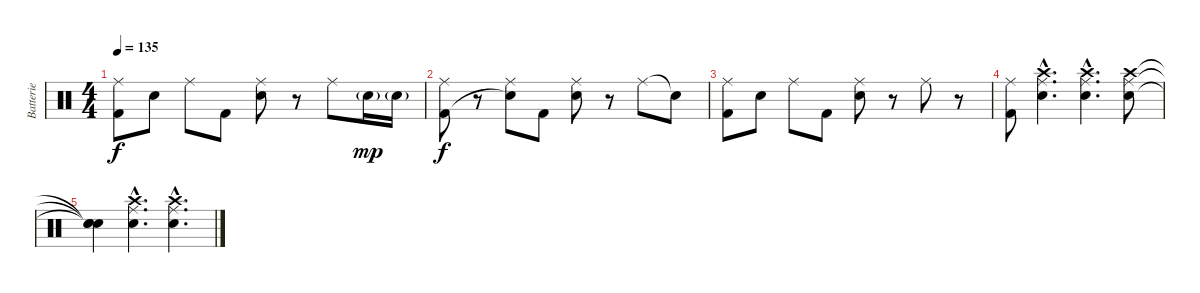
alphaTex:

\track ("Batterie" "Batterie") {instrument percussion}
\staff {score}
\articulation defaults
\ts (4 4)
\tempo 135
\clef neutral
\ks c
("Kick (hit) 2" "Ride (middle)").8{dy f} "Snare (hit) 2".8 "Ride (middle)".8 "Kick (hit) 2".8 ("Snare (hit) 2" "Ride (middle)").8 r.8 "Ride (middle)".8 "Snare (hit) 2"{g}.16{dy mp} "Snare (hit) 2"{g}.16 |
("Kick (hit) 2" "Ride (middle)").8{dy f volume 10} r.8 ("Snare (hit)"{t} "Ride (middle)").8 "Kick (hit) 2".8 ("Snare (hit) 2" "Ride (middle)").8 r.8 "Ride (middle)".8 "Snare (hit)"{t}.8 |
("Kick (hit) 2" "Ride (middle)").8 "Snare (hit) 2".8 "Ride (middle)".8 "Kick (hit) 2".8 ("Snare (hit) 2" "Ride (middle)").8 r.8 "Ride (middle)".8 r.8 |
("Kick (hit) 2" "Ride (middle)").8{volume 10} ("Snare (hit) 2"{hac} "Ride (middle)"{hac} "Crash high (hit)"{hac}).4{d} ("Snare (hit) 2"{hac} "Ride (middle)"{hac} "Crash high (hit)"{hac}).4{d} ("Snare (hit) 2" "Ride (middle)" "Crash high (hit)").8 |
("Snare (hit)"{t} "Snare (hit)"{t} "Snare (hit)"{t}).4 ("Snare (hit) 2"{hac} "Ride (middle)"{hac} "Crash high (hit)"{hac}).4{d} ("Snare (hit) 2"{hac} "Ride (middle)"{hac} "Crash high (hit)"{hac}).4{d}
